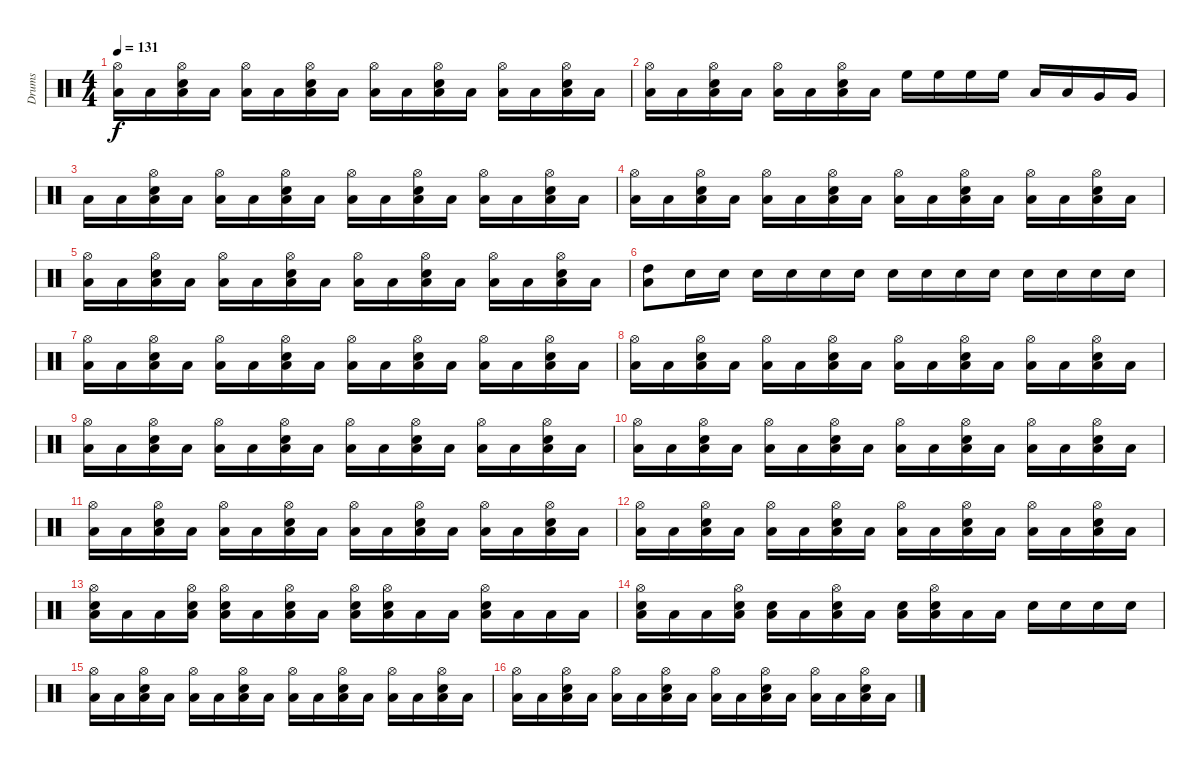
\track ("Drums" "Drums") {instrument percussion}
\staff {score}
\articulation defaults
\ts (4 4)
\tempo 131
\clef neutral
\ks c
("Hi-Hat (open)" "Low Tom (hit)").16{dy f} "Low Tom (hit)".16 ("Hi-Hat (open)" "Electric Snare (hit)" "Low Tom (hit)").16 "Low Tom (hit)".16 ("Hi-Hat (open)" "Low Tom (hit)").16 "Low Tom (hit)".16 ("Hi-Hat (open)" "Electric Snare (hit)" "Low Tom (hit)").16 "Low Tom (hit)".16 ("Hi-Hat (open)" "Low Tom (hit)").16 "Low Tom (hit)".16 ("Hi-Hat (open)" "Electric Snare (hit)" "Low Tom (hit)").16 "Low Tom (hit)".16 ("Hi-Hat (open)" "Low Tom (hit)").16 "Low Tom (hit)".16 ("Hi-Hat (open)" "Electric Snare (hit)" "Low Tom (hit)").16 "Low Tom (hit)".16 |
("Hi-Hat (open)" "Low Tom (hit)").16 "Low Tom (hit)".16 ("Hi-Hat (open)" "Electric Snare (hit)" "Low Tom (hit)").16 "Low Tom (hit)".16 ("Hi-Hat (open)" "Low Tom (hit)").16 "Low Tom (hit)".16 ("Hi-Hat (open)" "Electric Snare (hit)" "Low Tom (hit)").16 "Low Tom (hit)".16 "High Floor Tom (hit)".16 "High Floor Tom (hit)".16 "High Floor Tom (hit)".16 "High Floor Tom (hit)".16 "Low Tom (hit)".16 "Low Tom (hit)".16 "Very Low Tom (hit)".16 "Very Low Tom (hit)".16 |
"Low Tom (hit)".16 "Low Tom (hit)".16 ("Hi-Hat (open)" "Electric Snare (hit)" "Low Tom (hit)").16 "Low Tom (hit)".16 ("Hi-Hat (open)" "Low Tom (hit)").16 "Low Tom (hit)".16 ("Hi-Hat (open)" "Electric Snare (hit)" "Low Tom (hit)").16 "Low Tom (hit)".16 ("Hi-Hat (open)" "Low Tom (hit)").16 "Low Tom (hit)".16 ("Hi-Hat (open)" "Electric Snare (hit)" "Low Tom (hit)").16 "Low Tom (hit)".16 ("Hi-Hat (open)" "Low Tom (hit)").16 "Low Tom (hit)".16 ("Hi-Hat (open)" "Electric Snare (hit)" "Low Tom (hit)").16 "Low Tom (hit)".16 |
("Hi-Hat (open)" "Low Tom (hit)").16 "Low Tom (hit)".16 ("Hi-Hat (open)" "Electric Snare (hit)" "Low Tom (hit)").16 "Low Tom (hit)".16 ("Hi-Hat (open)" "Low Tom (hit)").16 "Low Tom (hit)".16 ("Hi-Hat (open)" "Electric Snare (hit)" "Low Tom (hit)").16 "Low Tom (hit)".16 ("Hi-Hat (open)" "Low Tom (hit)").16 "Low Tom (hit)".16 ("Hi-Hat (open)" "Electric Snare (hit)" "Low Tom (hit)").16 "Low Tom (hit)".16 ("Hi-Hat (open)" "Low Tom (hit)").16 "Low Tom (hit)".16 ("Hi-Hat (open)" "Electric Snare (hit)" "Low Tom (hit)").16 "Low Tom (hit)".16 |
("Hi-Hat (open)" "Low Tom (hit)").16 "Low Tom (hit)".16 ("Hi-Hat (open)" "Electric Snare (hit)" "Low Tom (hit)").16 "Low Tom (hit)".16 ("Hi-Hat (open)" "Low Tom (hit)").16 "Low Tom (hit)".16 ("Hi-Hat (open)" "Electric Snare (hit)" "Low Tom (hit)").16 "Low Tom (hit)".16 ("Hi-Hat (open)" "Low Tom (hit)").16 "Low Tom (hit)".16 ("Hi-Hat (open)" "Electric Snare (hit)" "Low Tom (hit)").16 "Low Tom (hit)".16 ("Hi-Hat (open)" "Low Tom (hit)").16 "Low Tom (hit)".16 ("Hi-Hat (open)" "Electric Snare (hit)" "Low Tom (hit)").16 "Low Tom (hit)".16 |
("High Tom (hit)" "Low Tom (hit)").8 "Electric Snare (hit)".16 "Electric Snare (hit)".16 "Electric Snare (hit)".16 "Electric Snare (hit)".16 "Electric Snare (hit)".16 "Electric Snare (hit)".16 "Electric Snare (hit)".16 "Electric Snare (hit)".16 "Electric Snare (hit)".16 "Electric Snare (hit)".16 "Electric Snare (hit)".16 "Electric Snare (hit)".16 "Electric Snare (hit)".16 "Electric Snare (hit)".16 |
("Low Tom (hit)" "Hi-Hat (open)").16 "Low Tom (hit)".16 ("Electric Snare (hit)" "Low Tom (hit)" "Hi-Hat (open)").16 "Low Tom (hit)".16 ("Low Tom (hit)" "Hi-Hat (open)").16 "Low Tom (hit)".16 ("Electric Snare (hit)" "Low Tom (hit)" "Hi-Hat (open)").16 "Low Tom (hit)".16 ("Low Tom (hit)" "Hi-Hat (open)").16 "Low Tom (hit)".16 ("Electric Snare (hit)" "Low Tom (hit)" "Hi-Hat (open)").16 "Low Tom (hit)".16 ("Low Tom (hit)" "Hi-Hat (open)").16 "Low Tom (hit)".16 ("Electric Snare (hit)" "Low Tom (hit)" "Hi-Hat (open)").16 "Low Tom (hit)".16 |
("Low Tom (hit)" "Hi-Hat (open)").16 "Low Tom (hit)".16 ("Electric Snare (hit)" "Low Tom (hit)" "Hi-Hat (open)").16 "Low Tom (hit)".16 ("Low Tom (hit)" "Hi-Hat (open)").16 "Low Tom (hit)".16 ("Electric Snare (hit)" "Low Tom (hit)" "Hi-Hat (open)").16 "Low Tom (hit)".16 ("Low Tom (hit)" "Hi-Hat (open)").16 "Low Tom (hit)".16 ("Electric Snare (hit)" "Low Tom (hit)" "Hi-Hat (open)").16 "Low Tom (hit)".16 ("Low Tom (hit)" "Hi-Hat (open)").16 "Low Tom (hit)".16 ("Electric Snare (hit)" "Low Tom (hit)" "Hi-Hat (open)").16 "Low Tom (hit)".16 |
("Low Tom (hit)" "Hi-Hat (open)").16 "Low Tom (hit)".16 ("Electric Snare (hit)" "Low Tom (hit)" "Hi-Hat (open)").16 "Low Tom (hit)".16 ("Low Tom (hit)" "Hi-Hat (open)").16 "Low Tom (hit)".16 ("Electric Snare (hit)" "Low Tom (hit)" "Hi-Hat (open)").16 "Low Tom (hit)".16 ("Low Tom (hit)" "Hi-Hat (open)").16 "Low Tom (hit)".16 ("Electric Snare (hit)" "Low Tom (hit)" "Hi-Hat (open)").16 "Low Tom (hit)".16 ("Low Tom (hit)" "Hi-Hat (open)").16 "Low Tom (hit)".16 ("Electric Snare (hit)" "Low Tom (hit)" "Hi-Hat (open)").16 "Low Tom (hit)".16 |
("Low Tom (hit)" "Hi-Hat (open)").16 "Low Tom (hit)".16 ("Electric Snare (hit)" "Low Tom (hit)" "Hi-Hat (open)").16 "Low Tom (hit)".16 ("Low Tom (hit)" "Hi-Hat (open)").16 "Low Tom (hit)".16 ("Electric Snare (hit)" "Low Tom (hit)" "Hi-Hat (open)").16 "Low Tom (hit)".16 ("Low Tom (hit)" "Hi-Hat (open)").16 "Low Tom (hit)".16 ("Electric Snare (hit)" "Low Tom (hit)" "Hi-Hat (open)").16 "Low Tom (hit)".16 ("Low Tom (hit)" "Hi-Hat (open)").16 "Low Tom (hit)".16 ("Electric Snare (hit)" "Low Tom (hit)" "Hi-Hat (open)").16 "Low Tom (hit)".16 |
("Low Tom (hit)" "Hi-Hat (open)").16 "Low Tom (hit)".16 ("Electric Snare (hit)" "Low Tom (hit)" "Hi-Hat (open)").16 "Low Tom (hit)".16 ("Low Tom (hit)" "Hi-Hat (open)").16 "Low Tom (hit)".16 ("Electric Snare (hit)" "Low Tom (hit)" "Hi-Hat (open)").16 "Low Tom (hit)".16 ("Low Tom (hit)" "Hi-Hat (open)").16 "Low Tom (hit)".16 ("Electric Snare (hit)" "Low Tom (hit)" "Hi-Hat (open)").16 "Low Tom (hit)".16 ("Low Tom (hit)" "Hi-Hat (open)").16 "Low Tom (hit)".16 ("Electric Snare (hit)" "Low Tom (hit)" "Hi-Hat (open)").16 "Low Tom (hit)".16 |
("Low Tom (hit)" "Hi-Hat (open)").16 "Low Tom (hit)".16 ("Electric Snare (hit)" "Low Tom (hit)" "Hi-Hat (open)").16 "Low Tom (hit)".16 ("Low Tom (hit)" "Hi-Hat (open)").16 "Low Tom (hit)".16 ("Electric Snare (hit)" "Low Tom (hit)" "Hi-Hat (open)").16 "Low Tom (hit)".16 ("Low Tom (hit)" "Hi-Hat (open)").16 "Low Tom (hit)".16 ("Electric Snare (hit)" "Low Tom (hit)" "Hi-Hat (open)").16 "Low Tom (hit)".16 ("Low Tom (hit)" "Hi-Hat (open)").16 "Low Tom (hit)".16 ("Electric Snare (hit)" "Low Tom (hit)" "Hi-Hat (open)").16 "Low Tom (hit)".16 |
("Low Tom (hit)" "Hi-Hat (open)" "Electric Snare (hit)").16 "Low Tom (hit)".16 "Low Tom (hit)".16 ("Low Tom (hit)" "Hi-Hat (open)" "Electric Snare (hit)").16 ("Low Tom (hit)" "Hi-Hat (open)" "Electric Snare (hit)").16 "Low Tom (hit)".16 ("Low Tom (hit)" "Hi-Hat (open)" "Electric Snare (hit)").16 "Low Tom (hit)".16 ("Low Tom (hit)" "Hi-Hat (open)" "Electric Snare (hit)").16 ("Low Tom (hit)" "Hi-Hat (open)" "Electric Snare (hit)").16 "Low Tom (hit)".16 "Low Tom (hit)".16 ("Low Tom (hit)" "Hi-Hat (open)" "Electric Snare (hit)").16 "Low Tom (hit)".16 "Low Tom (hit)".16 "Low Tom (hit)".16 |
("Electric Snare (hit)" "Hi-Hat (open)" "Low Tom (hit)").16 "Low Tom (hit)".16 "Low Tom (hit)".16 ("Electric Snare (hit)" "Hi-Hat (open)" "Low Tom (hit)").16 ("Electric Snare (hit)" "Low Tom (hit)").16 "Low Tom (hit)".16 ("Electric Snare (hit)" "Hi-Hat (open)" "Low Tom (hit)").16 "Low Tom (hit)".16 ("Electric Snare (hit)" "Low Tom (hit)").16 ("Electric Snare (hit)" "Hi-Hat (open)" "Low Tom (hit)").16 "Low Tom (hit)".16 "Low Tom (hit)".16 "Electric Snare (hit)".16 "Electric Snare (hit)".16 "Electric Snare (hit)".16 "Electric Snare (hit)".16 |
("Low Tom (hit)" "Hi-Hat (open)").16 "Low Tom (hit)".16 ("Low Tom (hit)" "Electric Snare (hit)" "Hi-Hat (open)").16 "Low Tom (hit)".16 ("Low Tom (hit)" "Hi-Hat (open)").16 "Low Tom (hit)".16 ("Low Tom (hit)" "Electric Snare (hit)" "Hi-Hat (open)").16 "Low Tom (hit)".16 ("Low Tom (hit)" "Hi-Hat (open)").16 "Low Tom (hit)".16 ("Low Tom (hit)" "Electric Snare (hit)" "Hi-Hat (open)").16 "Low Tom (hit)".16 ("Low Tom (hit)" "Hi-Hat (open)").16 "Low Tom (hit)".16 ("Low Tom (hit)" "Electric Snare (hit)" "Hi-Hat (open)").16 "Low Tom (hit)".16 |
("Low Tom (hit)" "Hi-Hat (open)").16 "Low Tom (hit)".16 ("Low Tom (hit)" "Electric Snare (hit)" "Hi-Hat (open)").16 "Low Tom (hit)".16 ("Low Tom (hit)" "Hi-Hat (open)").16 "Low Tom (hit)".16 ("Low Tom (hit)" "Electric Snare (hit)" "Hi-Hat (open)").16 "Low Tom (hit)".16 ("Low Tom (hit)" "Hi-Hat (open)").16 "Low Tom (hit)".16 ("Low Tom (hit)" "Electric Snare (hit)" "Hi-Hat (open)").16 "Low Tom (hit)".16 ("Low Tom (hit)" "Hi-Hat (open)").16 "Low Tom (hit)".16 ("Low Tom (hit)" "Electric Snare (hit)" "Hi-Hat (open)").16 "Low Tom (hit)".16
